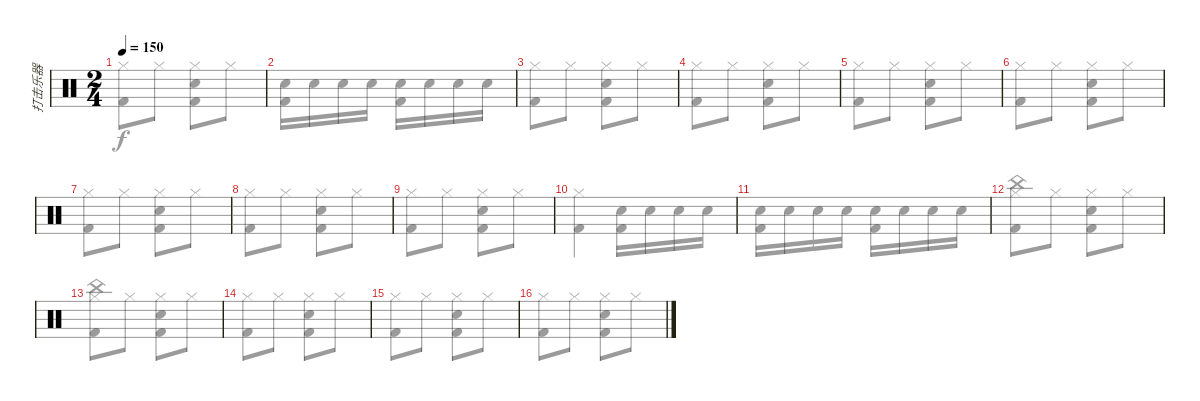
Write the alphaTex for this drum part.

\track ("打击乐器" "打击乐器") {instrument percussion bank 10}
\staff {score}
\articulation defaults
\voice
\ts (2 4)
\tempo 150
\clef neutral
\ks c
|
|
|
|
|
|
|
|
|
|
|
|
|
|
|
\voice
\clef neutral
\ks c
("Hi-Hat (closed)" "Kick (hit) 2").8{dy f} "Hi-Hat (closed)".8 ("Hi-Hat (closed)" "Electric Snare (hit)" "Kick (hit) 2").8 "Hi-Hat (closed)".8 |
("Electric Snare (hit)" "Kick (hit) 2").16 "Electric Snare (hit)".16 "Electric Snare (hit)".16 "Electric Snare (hit)".16 ("Electric Snare (hit)" "Kick (hit) 2").16 "Electric Snare (hit)".16 "Electric Snare (hit)".16 "Electric Snare (hit)".16 |
("Hi-Hat (closed)" "Kick (hit) 2").8 "Hi-Hat (closed)".8 ("Hi-Hat (closed)" "Electric Snare (hit)" "Kick (hit) 2").8 "Hi-Hat (closed)".8 |
("Hi-Hat (closed)" "Kick (hit) 2").8 "Hi-Hat (closed)".8 ("Hi-Hat (closed)" "Electric Snare (hit)" "Kick (hit) 2").8 "Hi-Hat (closed)".8 |
("Hi-Hat (closed)" "Kick (hit) 2").8 "Hi-Hat (closed)".8 ("Hi-Hat (closed)" "Electric Snare (hit)" "Kick (hit) 2").8 "Hi-Hat (closed)".8 |
("Hi-Hat (closed)" "Kick (hit) 2").8 "Hi-Hat (closed)".8 ("Hi-Hat (closed)" "Electric Snare (hit)" "Kick (hit) 2").8 "Hi-Hat (closed)".8 |
("Hi-Hat (closed)" "Kick (hit) 2").8 "Hi-Hat (closed)".8 ("Hi-Hat (closed)" "Electric Snare (hit)" "Kick (hit) 2").8 "Hi-Hat (closed)".8 |
("Hi-Hat (closed)" "Kick (hit) 2").8 "Hi-Hat (closed)".8 ("Hi-Hat (closed)" "Electric Snare (hit)" "Kick (hit) 2").8 "Hi-Hat (closed)".8 |
("Hi-Hat (closed)" "Kick (hit) 2").8 "Hi-Hat (closed)".8 ("Hi-Hat (closed)" "Electric Snare (hit)" "Kick (hit) 2").8 "Hi-Hat (closed)".8 |
("Hi-Hat (closed)" "Kick (hit) 2").4 ("Electric Snare (hit)" "Kick (hit) 2").16 "Electric Snare (hit)".16 "Electric Snare (hit)".16 "Electric Snare (hit)".16 |
("Electric Snare (hit)" "Kick (hit) 2").16 "Electric Snare (hit)".16 "Electric Snare (hit)".16 "Electric Snare (hit)".16 ("Electric Snare (hit)" "Kick (hit) 2").16 "Electric Snare (hit)".16 "Electric Snare (hit)".16 "Electric Snare (hit)".16 |
("Hi-Hat (closed)" "China (hit)" "Kick (hit) 2").8 "Hi-Hat (closed)".8 ("Hi-Hat (closed)" "Electric Snare (hit)" "Kick (hit) 2").8 "Hi-Hat (closed)".8 |
("Hi-Hat (closed)" "China (hit)" "Kick (hit) 2").8 "Hi-Hat (closed)".8 ("Hi-Hat (closed)" "Electric Snare (hit)" "Kick (hit) 2").8 "Hi-Hat (closed)".8 |
("Hi-Hat (closed)" "Kick (hit) 2").8 "Hi-Hat (closed)".8 ("Hi-Hat (closed)" "Electric Snare (hit)" "Kick (hit) 2").8 "Hi-Hat (closed)".8 |
("Hi-Hat (closed)" "Kick (hit) 2").8 "Hi-Hat (closed)".8 ("Hi-Hat (closed)" "Electric Snare (hit)" "Kick (hit) 2").8 "Hi-Hat (closed)".8 |
("Hi-Hat (closed)" "Kick (hit) 2").8 "Hi-Hat (closed)".8 ("Hi-Hat (closed)" "Electric Snare (hit)" "Kick (hit) 2").8 "Hi-Hat (closed)".8
